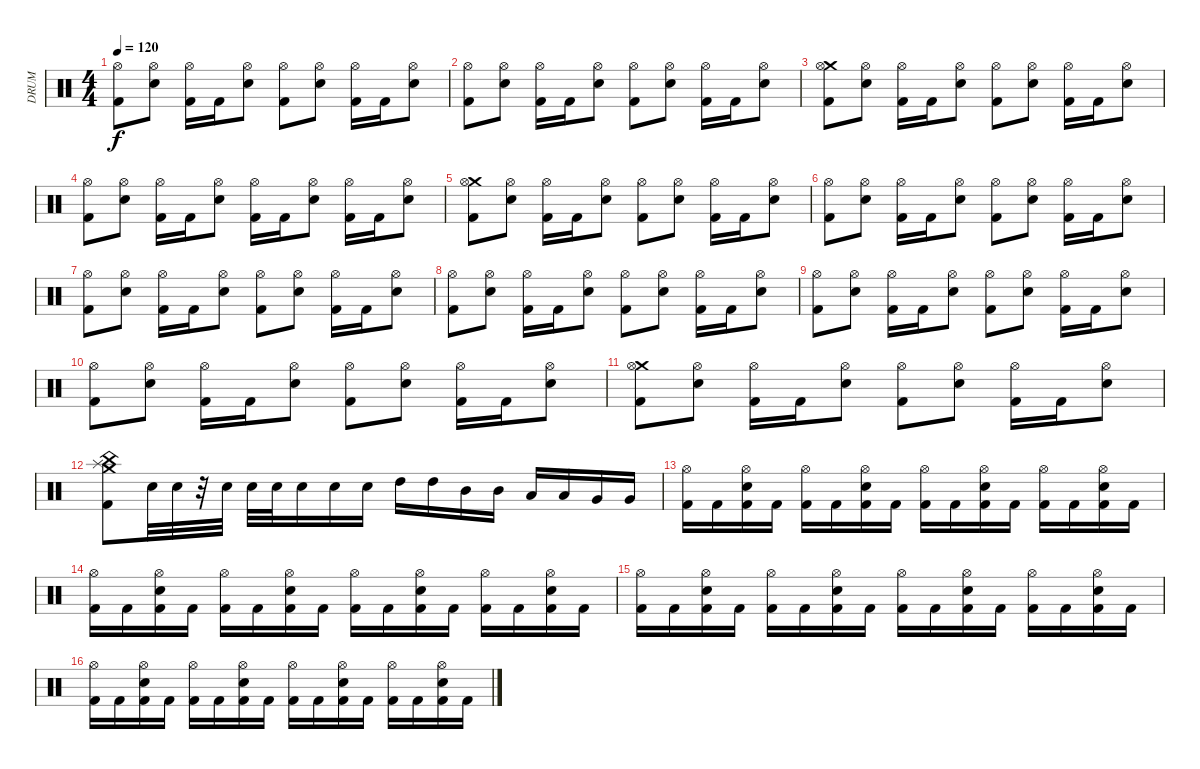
\track (" DRUM" " DRUM") {instrument percussion}
\staff {score}
\articulation defaults
\ts (4 4)
\tempo 120
\clef neutral
\ks c
("Hi-Hat (open)" "Kick (hit) 2").8{dy f} ("Hi-Hat (open)" "Electric Snare (hit)").8 ("Hi-Hat (open)" "Kick (hit) 2").16 "Kick (hit) 2".16 ("Hi-Hat (open)" "Electric Snare (hit)").8 ("Hi-Hat (open)" "Kick (hit) 2").8 ("Hi-Hat (open)" "Electric Snare (hit)").8 ("Hi-Hat (open)" "Kick (hit) 2").16 "Kick (hit) 2".16 ("Hi-Hat (open)" "Electric Snare (hit)").8 |
("Hi-Hat (open)" "Kick (hit) 2").8 ("Hi-Hat (open)" "Electric Snare (hit)").8 ("Hi-Hat (open)" "Kick (hit) 2").16 "Kick (hit) 2".16 ("Hi-Hat (open)" "Electric Snare (hit)").8 ("Hi-Hat (open)" "Kick (hit) 2").8 ("Hi-Hat (open)" "Electric Snare (hit)").8 ("Hi-Hat (open)" "Kick (hit) 2").16 "Kick (hit) 2".16 ("Hi-Hat (open)" "Electric Snare (hit)").8 |
("Crash medium (hit)" "Hi-Hat (open)" "Kick (hit) 2").8 ("Hi-Hat (open)" "Electric Snare (hit)").8 ("Hi-Hat (open)" "Kick (hit) 2").16 "Kick (hit) 2".16 ("Hi-Hat (open)" "Electric Snare (hit)").8 ("Hi-Hat (open)" "Kick (hit) 2").8 ("Hi-Hat (open)" "Electric Snare (hit)").8 ("Hi-Hat (open)" "Kick (hit) 2").16 "Kick (hit) 2".16 ("Hi-Hat (open)" "Electric Snare (hit)").8 |
("Hi-Hat (open)" "Kick (hit) 2").8 ("Hi-Hat (open)" "Electric Snare (hit)").8 ("Hi-Hat (open)" "Kick (hit) 2").16 "Kick (hit) 2".16 ("Hi-Hat (open)" "Electric Snare (hit)").8 ("Kick (hit) 2" "Hi-Hat (open)").16 "Kick (hit) 2".16 ("Hi-Hat (open)" "Electric Snare (hit)").8 ("Hi-Hat (open)" "Kick (hit) 2").16 "Kick (hit) 2".16 ("Hi-Hat (open)" "Electric Snare (hit)").8 |
("Crash medium (hit)" "Hi-Hat (open)" "Kick (hit) 2").8 ("Hi-Hat (open)" "Electric Snare (hit)").8 ("Hi-Hat (open)" "Kick (hit) 2").16 "Kick (hit) 2".16 ("Hi-Hat (open)" "Electric Snare (hit)").8 ("Hi-Hat (open)" "Kick (hit) 2").8 ("Hi-Hat (open)" "Electric Snare (hit)").8 ("Hi-Hat (open)" "Kick (hit) 2").16 "Kick (hit) 2".16 ("Hi-Hat (open)" "Electric Snare (hit)").8 |
("Hi-Hat (open)" "Kick (hit) 2").8 ("Hi-Hat (open)" "Electric Snare (hit)").8 ("Hi-Hat (open)" "Kick (hit) 2").16 "Kick (hit) 2".16 ("Hi-Hat (open)" "Electric Snare (hit)").8 ("Hi-Hat (open)" "Kick (hit) 2").8 ("Hi-Hat (open)" "Electric Snare (hit)").8 ("Hi-Hat (open)" "Kick (hit) 2").16 "Kick (hit) 2".16 ("Hi-Hat (open)" "Electric Snare (hit)").8 |
("Hi-Hat (open)" "Kick (hit) 2").8 ("Hi-Hat (open)" "Electric Snare (hit)").8 ("Hi-Hat (open)" "Kick (hit) 2").16 "Kick (hit) 2".16 ("Hi-Hat (open)" "Electric Snare (hit)").8 ("Hi-Hat (open)" "Kick (hit) 2").8 ("Hi-Hat (open)" "Electric Snare (hit)").8 ("Hi-Hat (open)" "Kick (hit) 2").16 "Kick (hit) 2".16 ("Hi-Hat (open)" "Electric Snare (hit)").8 |
("Hi-Hat (open)" "Kick (hit) 2").8 ("Hi-Hat (open)" "Electric Snare (hit)").8 ("Hi-Hat (open)" "Kick (hit) 2").16 "Kick (hit) 2".16 ("Hi-Hat (open)" "Electric Snare (hit)").8 ("Hi-Hat (open)" "Kick (hit) 2").8 ("Hi-Hat (open)" "Electric Snare (hit)").8 ("Hi-Hat (open)" "Kick (hit) 2").16 "Kick (hit) 2".16 ("Hi-Hat (open)" "Electric Snare (hit)").8 |
("Hi-Hat (open)" "Kick (hit) 2").8 ("Hi-Hat (open)" "Electric Snare (hit)").8 ("Hi-Hat (open)" "Kick (hit) 2").16 "Kick (hit) 2".16 ("Hi-Hat (open)" "Electric Snare (hit)").8 ("Hi-Hat (open)" "Kick (hit) 2").8 ("Hi-Hat (open)" "Electric Snare (hit)").8 ("Hi-Hat (open)" "Kick (hit) 2").16 "Kick (hit) 2".16 ("Hi-Hat (open)" "Electric Snare (hit)").8 |
("Hi-Hat (open)" "Kick (hit) 2").8 ("Hi-Hat (open)" "Electric Snare (hit)").8 ("Hi-Hat (open)" "Kick (hit) 2").16 "Kick (hit) 2".16 ("Hi-Hat (open)" "Electric Snare (hit)").8 ("Hi-Hat (open)" "Kick (hit) 2").8 ("Hi-Hat (open)" "Electric Snare (hit)").8 ("Hi-Hat (open)" "Kick (hit) 2").16 "Kick (hit) 2".16 ("Hi-Hat (open)" "Electric Snare (hit)").8 |
("Crash medium (hit)" "Hi-Hat (open)" "Kick (hit) 2").8 ("Hi-Hat (open)" "Electric Snare (hit)").8 ("Hi-Hat (open)" "Kick (hit) 2").16 "Kick (hit) 2".16 ("Hi-Hat (open)" "Electric Snare (hit)").8 ("Hi-Hat (open)" "Kick (hit) 2").8 ("Hi-Hat (open)" "Electric Snare (hit)").8 ("Hi-Hat (open)" "Kick (hit) 2").16 "Kick (hit) 2".16 ("Hi-Hat (open)" "Electric Snare (hit)").8 |
("Splash (hit)" "Crash medium (hit)" "China (hit)" "Kick (hit) 2").8{volume 15} "Electric Snare (hit)".32{volume 4} "Electric Snare (hit)".32{volume 5} r.32 "Electric Snare (hit)".32{volume 6} "Electric Snare (hit)".32{volume 8} "Electric Snare (hit)".32{volume 8} "Electric Snare (hit)".16{volume 9} "Electric Snare (hit)".16{volume 11} "Electric Snare (hit)".16{volume 13} "High Tom (hit)".16{volume 15} "High Tom (hit)".16 "Mid Tom (hit)".16 "Mid Tom (hit)".16 "Low Tom (hit)".16 "Low Tom (hit)".16 "Very Low Tom (hit)".16 "Very Low Tom (hit)".16 |
("Kick (hit) 2" "Hi-Hat (open)").16 "Kick (hit) 2".16 ("Kick (hit) 2" "Electric Snare (hit)" "Hi-Hat (open)").16 "Kick (hit) 2".16 ("Kick (hit) 2" "Hi-Hat (open)").16 "Kick (hit) 2".16 ("Kick (hit) 2" "Electric Snare (hit)" "Hi-Hat (open)").16 "Kick (hit) 2".16 ("Kick (hit) 2" "Hi-Hat (open)").16 "Kick (hit) 2".16 ("Kick (hit) 2" "Electric Snare (hit)" "Hi-Hat (open)").16 "Kick (hit) 2".16 ("Kick (hit) 2" "Hi-Hat (open)").16 "Kick (hit) 2".16 ("Kick (hit) 2" "Electric Snare (hit)" "Hi-Hat (open)").16 "Kick (hit) 2".16 |
("Kick (hit) 2" "Hi-Hat (open)").16 "Kick (hit) 2".16 ("Kick (hit) 2" "Electric Snare (hit)" "Hi-Hat (open)").16 "Kick (hit) 2".16 ("Kick (hit) 2" "Hi-Hat (open)").16 "Kick (hit) 2".16 ("Kick (hit) 2" "Electric Snare (hit)" "Hi-Hat (open)").16 "Kick (hit) 2".16 ("Kick (hit) 2" "Hi-Hat (open)").16 "Kick (hit) 2".16 ("Kick (hit) 2" "Electric Snare (hit)" "Hi-Hat (open)").16 "Kick (hit) 2".16 ("Kick (hit) 2" "Hi-Hat (open)").16 "Kick (hit) 2".16 ("Kick (hit) 2" "Electric Snare (hit)" "Hi-Hat (open)").16 "Kick (hit) 2".16 |
("Kick (hit) 2" "Hi-Hat (open)").16 "Kick (hit) 2".16 ("Kick (hit) 2" "Electric Snare (hit)" "Hi-Hat (open)").16 "Kick (hit) 2".16 ("Kick (hit) 2" "Hi-Hat (open)").16 "Kick (hit) 2".16 ("Kick (hit) 2" "Electric Snare (hit)" "Hi-Hat (open)").16 "Kick (hit) 2".16 ("Kick (hit) 2" "Hi-Hat (open)").16 "Kick (hit) 2".16 ("Kick (hit) 2" "Electric Snare (hit)" "Hi-Hat (open)").16 "Kick (hit) 2".16 ("Kick (hit) 2" "Hi-Hat (open)").16 "Kick (hit) 2".16 ("Kick (hit) 2" "Electric Snare (hit)" "Hi-Hat (open)").16 "Kick (hit) 2".16 |
("Kick (hit) 2" "Hi-Hat (open)").16 "Kick (hit) 2".16 ("Kick (hit) 2" "Electric Snare (hit)" "Hi-Hat (open)").16 "Kick (hit) 2".16 ("Kick (hit) 2" "Hi-Hat (open)").16 "Kick (hit) 2".16 ("Kick (hit) 2" "Electric Snare (hit)" "Hi-Hat (open)").16 "Kick (hit) 2".16 ("Kick (hit) 2" "Hi-Hat (open)").16 "Kick (hit) 2".16 ("Kick (hit) 2" "Electric Snare (hit)" "Hi-Hat (open)").16 "Kick (hit) 2".16 ("Kick (hit) 2" "Hi-Hat (open)").16 "Kick (hit) 2".16 ("Kick (hit) 2" "Electric Snare (hit)" "Hi-Hat (open)").16 "Kick (hit) 2".16
